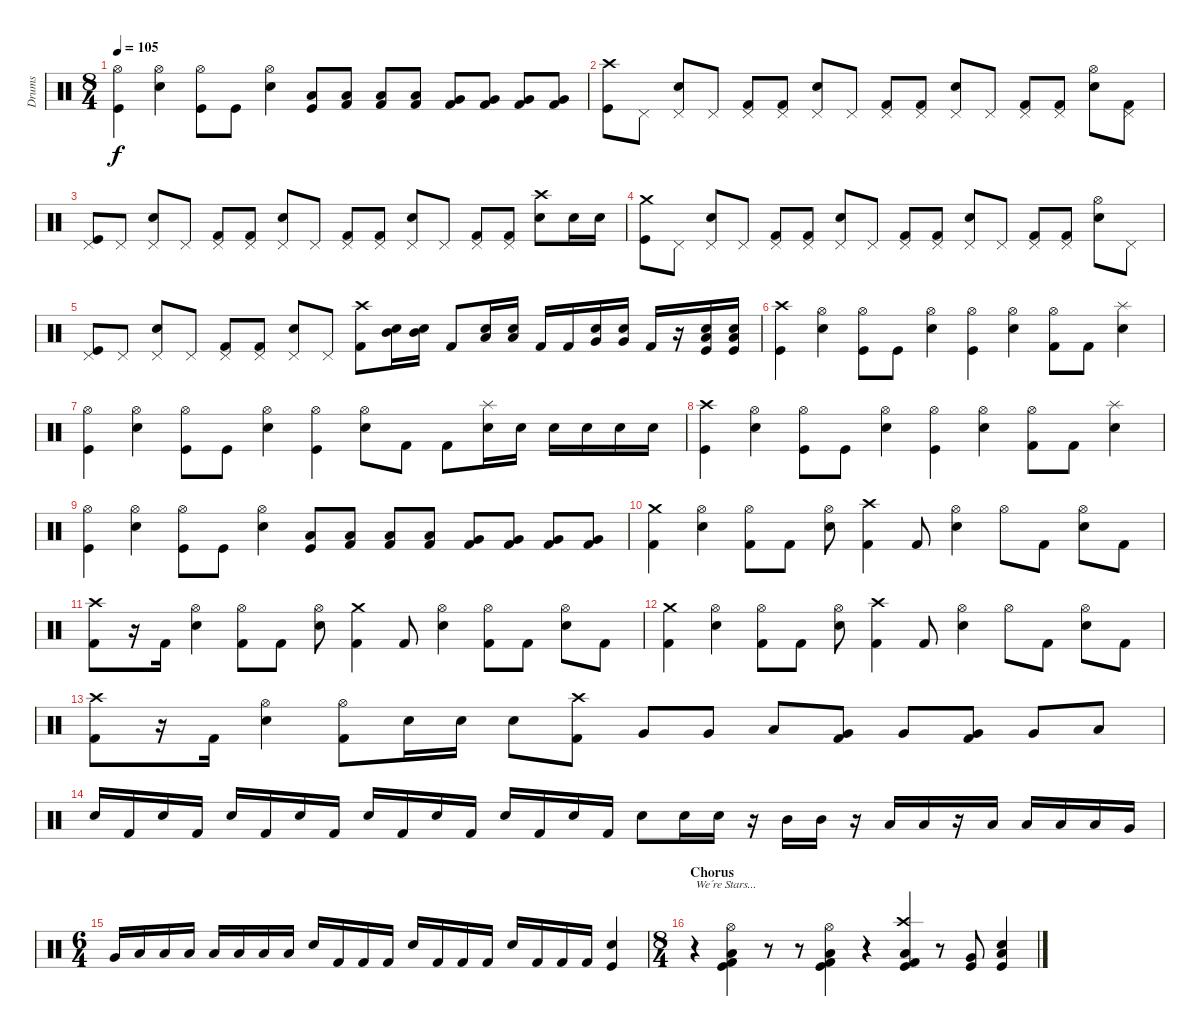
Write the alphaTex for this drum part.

\track ("Drums" "Drums") {instrument percussion}
\staff {score}
\articulation defaults
\ts (8 4)
\tempo 105
\clef neutral
\ks c
("Hi-Hat (open)" "Kick (hit)").4{dy f} ("Hi-Hat (open)" "Snare (hit) 2").4 ("Hi-Hat (open)" "Kick (hit)").8 "Kick (hit)".8 ("Hi-Hat (open)" "Snare (hit) 2").4 ("Low Tom (hit)" "Kick (hit)").8 ("Low Tom (hit)" "Kick (hit) 2").8 ("Low Tom (hit)" "Kick (hit) 2").8 ("Low Tom (hit)" "Kick (hit) 2").8 ("Very Low Tom (hit)" "Kick (hit) 2").8 ("Very Low Tom (hit)" "Kick (hit) 2").8 ("Very Low Tom (hit)" "Kick (hit) 2").8 ("Very Low Tom (hit)" "Kick (hit) 2").8 |
("Crash high (hit)" "Kick (hit)").8 "Pedal Hi-Hat (hit)".8 ("Pedal Hi-Hat (hit)" "Snare (hit) 2").8 "Pedal Hi-Hat (hit)".8 ("Pedal Hi-Hat (hit)" "Kick (hit) 2").8 ("Pedal Hi-Hat (hit)" "Kick (hit) 2").8 ("Pedal Hi-Hat (hit)" "Snare (hit) 2").8 "Pedal Hi-Hat (hit)".8 ("Pedal Hi-Hat (hit)" "Kick (hit) 2").8 ("Pedal Hi-Hat (hit)" "Kick (hit) 2").8 ("Pedal Hi-Hat (hit)" "Snare (hit) 2").8 "Pedal Hi-Hat (hit)".8 ("Pedal Hi-Hat (hit)" "Kick (hit) 2").8 ("Pedal Hi-Hat (hit)" "Kick (hit) 2").8 ("Hi-Hat (open)" "Snare (hit) 2").8 ("Pedal Hi-Hat (hit)" "Kick (hit) 2").8 |
("Pedal Hi-Hat (hit)" "Kick (hit)").8 "Pedal Hi-Hat (hit)".8 ("Pedal Hi-Hat (hit)" "Snare (hit) 2").8 "Pedal Hi-Hat (hit)".8 ("Pedal Hi-Hat (hit)" "Kick (hit) 2").8 ("Pedal Hi-Hat (hit)" "Kick (hit) 2").8 ("Pedal Hi-Hat (hit)" "Snare (hit) 2").8 "Pedal Hi-Hat (hit)".8 ("Pedal Hi-Hat (hit)" "Kick (hit) 2").8 ("Pedal Hi-Hat (hit)" "Kick (hit) 2").8 ("Pedal Hi-Hat (hit)" "Snare (hit) 2").8 "Pedal Hi-Hat (hit)".8 ("Pedal Hi-Hat (hit)" "Kick (hit) 2").8 ("Pedal Hi-Hat (hit)" "Kick (hit) 2").8 ("Crash high (hit)" "Snare (hit) 2").8 "Snare (hit) 2".16 "Snare (hit) 2".16 |
("Crash medium (hit)" "Kick (hit)").8 "Pedal Hi-Hat (hit)".8 ("Pedal Hi-Hat (hit)" "Snare (hit) 2").8 "Pedal Hi-Hat (hit)".8 ("Pedal Hi-Hat (hit)" "Kick (hit) 2").8 ("Pedal Hi-Hat (hit)" "Kick (hit) 2").8 ("Pedal Hi-Hat (hit)" "Snare (hit) 2").8 "Pedal Hi-Hat (hit)".8 ("Pedal Hi-Hat (hit)" "Kick (hit) 2").8 ("Pedal Hi-Hat (hit)" "Kick (hit) 2").8 ("Pedal Hi-Hat (hit)" "Snare (hit) 2").8 "Pedal Hi-Hat (hit)".8 ("Pedal Hi-Hat (hit)" "Kick (hit) 2").8 ("Pedal Hi-Hat (hit)" "Kick (hit) 2").8 ("Hi-Hat (open)" "Snare (hit) 2").8 "Pedal Hi-Hat (hit)".8 |
("Pedal Hi-Hat (hit)" "Kick (hit)").8 "Pedal Hi-Hat (hit)".8 ("Pedal Hi-Hat (hit)" "Snare (hit) 2").8 "Pedal Hi-Hat (hit)".8 ("Pedal Hi-Hat (hit)" "Kick (hit) 2").8 ("Pedal Hi-Hat (hit)" "Kick (hit) 2").8 ("Pedal Hi-Hat (hit)" "Snare (hit) 2").8 "Pedal Hi-Hat (hit)".8 ("Crash high (hit)" "Kick (hit) 2").8 ("Mid Tom (hit)" "Snare (hit) 2").16 ("Mid Tom (hit)" "Snare (hit) 2").16 "Kick (hit) 2".8 ("Low Tom (hit)" "Snare (hit) 2").16 ("Low Tom (hit)" "Snare (hit) 2").16 "Kick (hit) 2".16 "Kick (hit) 2".16 ("Very Low Tom (hit)" "Snare (hit) 2").16 ("Very Low Tom (hit)" "Snare (hit) 2").16 "Kick (hit) 2".16 r.16 ("Low Floor Tom (hit)" "Snare (hit) 2" "Kick (hit)").16 ("Low Floor Tom (hit)" "Snare (hit) 2" "Kick (hit)").16 |
("Crash high (hit)" "Kick (hit)").4 ("Hi-Hat (open)" "Snare (hit) 2").4 ("Hi-Hat (open)" "Kick (hit)").8 "Kick (hit)".8 ("Hi-Hat (open)" "Snare (hit) 2").4 ("Hi-Hat (open)" "Kick (hit)").4 ("Hi-Hat (open)" "Snare (hit) 2").4 ("Hi-Hat (open)" "Kick (hit) 2").8 "Kick (hit) 2".8 ("Splash (hit)" "Snare (hit) 2").4 |
("Hi-Hat (open)" "Kick (hit)").4 ("Hi-Hat (open)" "Snare (hit) 2").4 ("Hi-Hat (open)" "Kick (hit)").8 "Kick (hit)".8 ("Hi-Hat (open)" "Snare (hit) 2").4 ("Hi-Hat (open)" "Kick (hit)").4 ("Hi-Hat (open)" "Snare (hit) 2").8 "Kick (hit) 2".8 "Kick (hit) 2".8 ("Splash (hit)" "Snare (hit) 2").16 "Snare (hit) 2".16 "Snare (hit) 2".16 "Snare (hit) 2".16 "Snare (hit) 2".16 "Snare (hit) 2".16 |
("Crash high (hit)" "Kick (hit)").4 ("Hi-Hat (open)" "Snare (hit) 2").4 ("Hi-Hat (open)" "Kick (hit)").8 "Kick (hit)".8 ("Hi-Hat (open)" "Snare (hit) 2").4 ("Hi-Hat (open)" "Kick (hit)").4 ("Hi-Hat (open)" "Snare (hit) 2").4 ("Hi-Hat (open)" "Kick (hit) 2").8 "Kick (hit) 2".8 ("Splash (hit)" "Snare (hit) 2").4 |
("Hi-Hat (open)" "Kick (hit)").4 ("Hi-Hat (open)" "Snare (hit) 2").4 ("Hi-Hat (open)" "Kick (hit)").8 "Kick (hit)".8 ("Hi-Hat (open)" "Snare (hit) 2").4 ("Low Tom (hit)" "Kick (hit)").8 ("Low Tom (hit)" "Kick (hit) 2").8 ("Low Tom (hit)" "Kick (hit) 2").8 ("Low Tom (hit)" "Kick (hit) 2").8 ("Very Low Tom (hit)" "Kick (hit) 2").8 ("Very Low Tom (hit)" "Kick (hit) 2").8 ("Very Low Tom (hit)" "Kick (hit) 2").8 ("Very Low Tom (hit)" "Kick (hit) 2").8 |
("Crash medium (hit)" "Kick (hit) 2").4 ("Hi-Hat (open)" "Snare (hit) 2").4 ("Hi-Hat (open)" "Kick (hit) 2").8 "Kick (hit) 2".8 ("Hi-Hat (open)" "Snare (hit) 2").8 ("Crash high (hit)" "Kick (hit) 2").4 "Kick (hit) 2".8 ("Hi-Hat (open)" "Snare (hit) 2").4 "Hi-Hat (open)".8 "Kick (hit) 2".8 ("Hi-Hat (open)" "Snare (hit) 2").8 "Kick (hit) 2".8 |
("Crash high (hit)" "Kick (hit) 2").8 r.16 "Kick (hit) 2".16 ("Hi-Hat (open)" "Snare (hit) 2").4 ("Hi-Hat (open)" "Kick (hit) 2").8 "Kick (hit) 2".8 ("Hi-Hat (open)" "Snare (hit) 2").8 ("Crash medium (hit)" "Kick (hit) 2").4 "Kick (hit) 2".8 ("Hi-Hat (open)" "Snare (hit) 2").4 ("Hi-Hat (open)" "Kick (hit) 2").8 "Kick (hit) 2".8 ("Hi-Hat (open)" "Snare (hit) 2").8 "Kick (hit) 2".8 |
("Crash medium (hit)" "Kick (hit) 2").4 ("Hi-Hat (open)" "Snare (hit) 2").4 ("Hi-Hat (open)" "Kick (hit) 2").8 "Kick (hit) 2".8 ("Hi-Hat (open)" "Snare (hit) 2").8 ("Crash high (hit)" "Kick (hit) 2").4 "Kick (hit) 2".8 ("Hi-Hat (open)" "Snare (hit) 2").4 "Hi-Hat (open)".8 "Kick (hit) 2".8 ("Hi-Hat (open)" "Snare (hit) 2").8 "Kick (hit) 2".8 |
("Crash high (hit)" "Kick (hit) 2").8 r.16 "Kick (hit) 2".16 ("Hi-Hat (open)" "Snare (hit) 2").4 ("Hi-Hat (open)" "Kick (hit) 2").8 "Snare (hit) 2".16 "Snare (hit) 2".16 "Snare (hit) 2".8 ("Crash high (hit)" "Kick (hit) 2").8 "Very Low Tom (hit)".8 "Very Low Tom (hit)".8 "Low Tom (hit)".8 ("Very Low Tom (hit)" "Kick (hit) 2").8 "Very Low Tom (hit)".8 ("Very Low Tom (hit)" "Kick (hit) 2").8 "Very Low Tom (hit)".8 "Low Tom (hit)".8 |
"Snare (hit) 2".16 "Kick (hit) 2".16 "Snare (hit) 2".16 "Kick (hit) 2".16 "Snare (hit) 2".16 "Kick (hit) 2".16 "Snare (hit) 2".16 "Kick (hit) 2".16 "Snare (hit) 2".16 "Kick (hit) 2".16 "Snare (hit) 2".16 "Kick (hit) 2".16 "Snare (hit) 2".16 "Kick (hit) 2".16 "Snare (hit) 2".16 "Kick (hit) 2".16 "Snare (hit) 2".8 "Snare (hit) 2".16 "Snare (hit) 2".16 r.16 "Mid Tom (hit)".16 "Mid Tom (hit)".16 r.16 "Low Tom (hit)".16 "Low Tom (hit)".16 r.16 "Low Tom (hit)".16 "Low Tom (hit)".16 "Low Tom (hit)".16 "Low Tom (hit)".16 "Very Low Tom (hit)".16 |
\ts (6 4)
"Very Low Tom (hit)".16 "Low Floor Tom (hit)".16 "Low Floor Tom (hit)".16 "Low Floor Tom (hit)".16 "Low Floor Tom (hit)".16 "Low Floor Tom (hit)".16 "Low Floor Tom (hit)".16 "Low Floor Tom (hit)".16 "Snare (hit) 2".16 "Kick (hit) 2".16 "Kick (hit) 2".16 "Kick (hit) 2".16 "Snare (hit) 2".16 "Kick (hit) 2".16 "Kick (hit) 2".16 "Kick (hit) 2".16 "Snare (hit) 2".16 "Kick (hit) 2".16 "Kick (hit) 2".16 "Kick (hit) 2".16 ("Snare (hit) 2" "Kick (hit)").4 |
\ts (8 4)
\section ("" "Chorus")
r.4{txt "We´re Stars..."} ("Hi-Hat (open)" "Low Floor Tom (hit)" "Kick (hit) 2" "Kick (hit)").4 r.8 r.8 ("Hi-Hat (open)" "Low Floor Tom (hit)" "Kick (hit) 2" "Kick (hit)").4 r.4 ("Crash high (hit)" "Low Floor Tom (hit)" "Kick (hit) 2" "Kick (hit)").4 r.8 ("Very Low Tom (hit)" "Kick (hit)").8 ("Low Floor Tom (hit)" "Snare (hit) 2" "Kick (hit)").4
